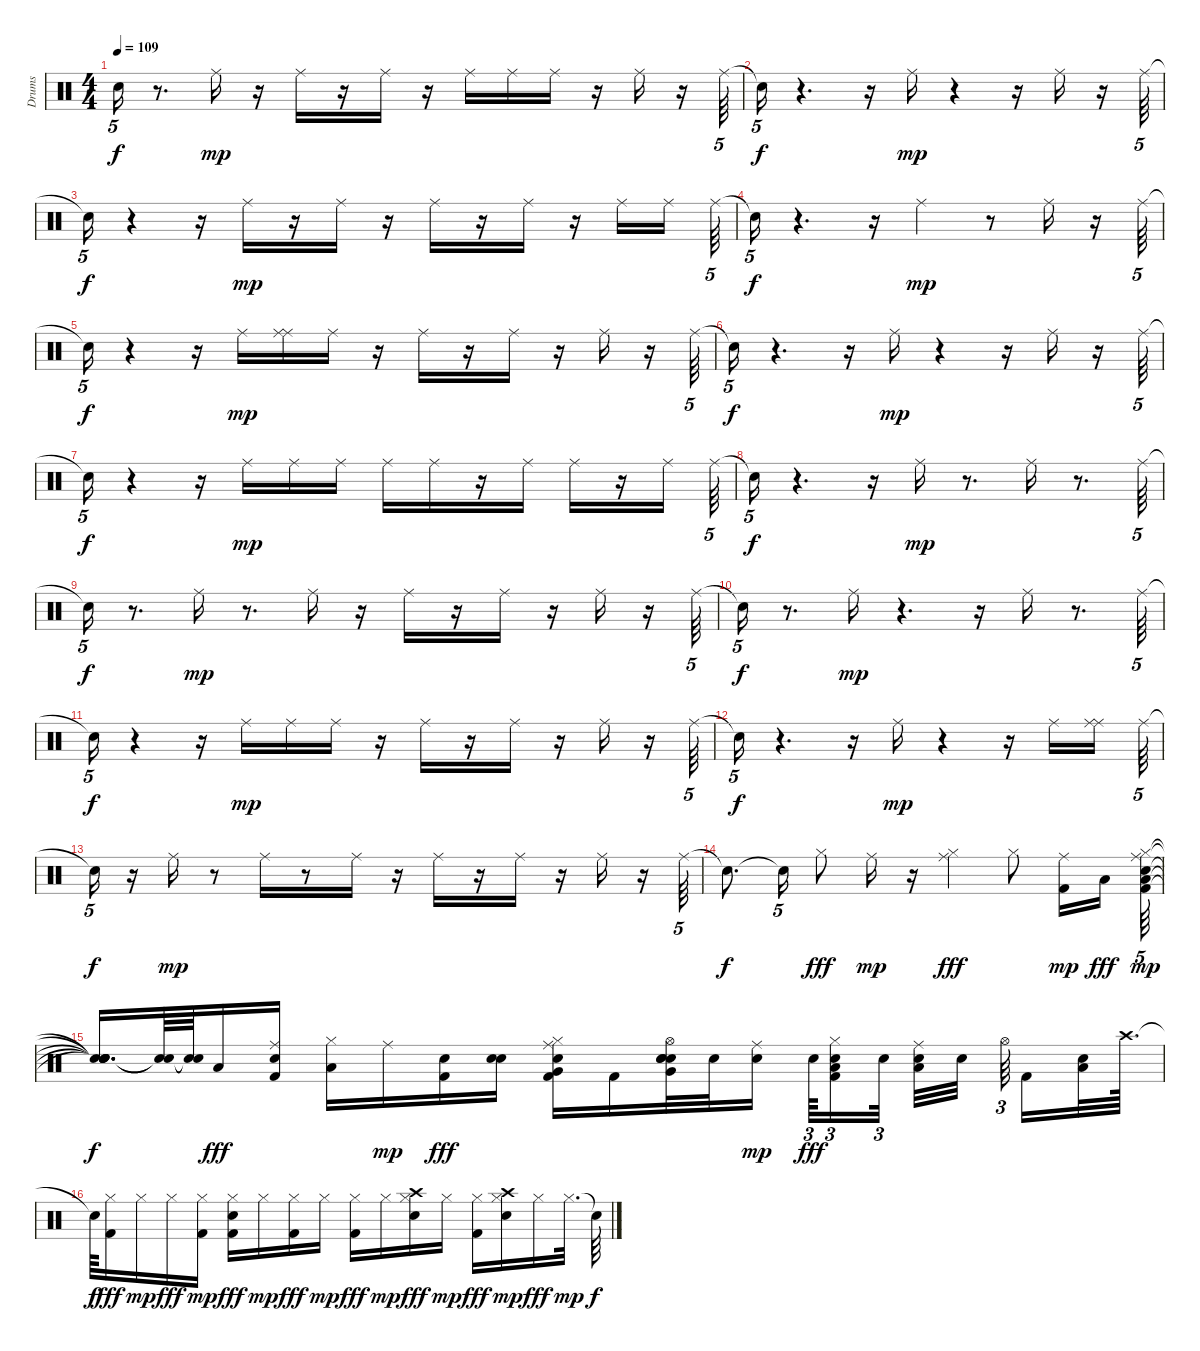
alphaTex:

\track ("Drums" "Drums") {instrument percussion}
\staff {score}
\articulation defaults
\ts (4 4)
\tempo 109
\clef neutral
\ks c "Snare (hit)"{t}.16{tu (5 4) dy f}
r.8{d} "Ride (middle)".16{dy mp} r.16 "Ride (middle)".16 r.16 "Ride (middle)".16 r.16 "Ride (middle)".16 "Ride (middle)".16 "Ride (middle)".16 r.16 "Ride (middle)".16 r.16 "Ride (middle)".64{tu (5 4)} |
"Snare (hit)"{t}.16{tu (5 4) dy f} r.4{d} r.16 "Ride (middle)".16{dy mp} r.4 r.16 "Ride (middle)".16 r.16 "Ride (middle)".64{tu (5 4)} |
"Snare (hit)"{t}.16{tu (5 4) dy f} r.4 r.16 "Ride (middle)".16{dy mp} r.16 "Ride (middle)".16 r.16 "Ride (middle)".16 r.16 "Ride (middle)".16 r.16 "Ride (middle)".16 "Ride (middle)".16{beam splitsecondary} "Ride (middle)".64{tu (5 4)} |
"Snare (hit)"{t}.16{tu (5 4) dy f} r.4{d} r.16 "Ride (middle)".4{dy mp} r.8 "Ride (middle)".16 r.16 "Ride (middle)".64{tu (5 4)} |
"Snare (hit)"{t}.16{tu (5 4) dy f} r.4 r.16 "Ride (middle)".16{dy mp} ("Ride (middle)" "Ride (middle)").16 "Ride (middle)".16 r.16 "Ride (middle)".16 r.16 "Ride (middle)".16 r.16 "Ride (middle)".16 r.16 "Ride (middle)".64{tu (5 4)} |
"Snare (hit)"{t}.16{tu (5 4) dy f} r.4{d} r.16 "Ride (middle)".16{dy mp} r.4 r.16 "Ride (middle)".16 r.16 "Ride (middle)".64{tu (5 4)} |
"Snare (hit)"{t}.16{tu (5 4) dy f} r.4 r.16 "Ride (middle)".16{dy mp} "Ride (middle)".16 "Ride (middle)".16 "Ride (middle)".16 "Ride (middle)".16 r.16 "Ride (middle)".16 "Ride (middle)".16 r.16 "Ride (middle)".16 "Ride (middle)".64{tu (5 4)} |
"Snare (hit)"{t}.16{tu (5 4) dy f} r.4{d} r.16 "Ride (middle)".16{dy mp} r.8{d} "Ride (middle)".16 r.8{d} "Ride (middle)".64{tu (5 4)} |
"Snare (hit)"{t}.16{tu (5 4) dy f} r.8{d} "Ride (middle)".16{dy mp} r.8{d} "Ride (middle)".16 r.16 "Ride (middle)".16 r.16 "Ride (middle)".16 r.16 "Ride (middle)".16 r.16 "Ride (middle)".64{tu (5 4)} |
"Snare (hit)"{t}.16{tu (5 4) dy f} r.8{d} "Ride (middle)".16{dy mp} r.4{d} r.16 "Ride (middle)".16 r.8{d} "Ride (middle)".64{tu (5 4)} |
"Snare (hit)"{t}.16{tu (5 4) dy f} r.4 r.16 "Ride (middle)".16{dy mp} "Ride (middle)".16 "Ride (middle)".16 r.16 "Ride (middle)".16 r.16 "Ride (middle)".16 r.16 "Ride (middle)".16 r.16 "Ride (middle)".64{tu (5 4)} |
"Snare (hit)"{t}.16{tu (5 4) dy f} r.4{d} r.16 "Ride (middle)".16{dy mp} r.4 r.16 "Ride (middle)".16 ("Ride (middle)" "Ride (middle)").16{beam splitsecondary} "Ride (middle)".64{tu (5 4)} |
"Snare (hit)"{t}.16{tu (5 4) dy f} r.16 "Ride (middle)".16{dy mp} r.8 "Ride (middle)".16 r.8 "Ride (middle)".16 r.16 "Ride (middle)".16 r.16 "Ride (middle)".16 r.16 "Ride (middle)".16 r.16 "Ride (middle)".64{tu (5 4)} |
"Snare (hit)"{t}.8{d dy f} "Snare (hit)"{t}.16{tu (5 4)} "Hi-Hat (closed)".8{dy fff} "Ride (middle)".16{dy mp} r.16 ("Ride (middle)" "Hi-Hat (closed)").4{dy fff} "Hi-Hat (closed)".8 ("Kick (hit) 2" "Ride (middle)").16{dy mp} "Low Tom (hit)".16{dy fff beam splitsecondary} ("Hi-Hat (closed)" "Low Tom (hit)" "Kick (hit) 2" "Snare (hit) 2" "Ride (middle)").64{tu (5 4) dy mp} |
("Snare (hit)"{t} "Snare (hit)"{t} "Snare (hit)"{t} "Snare (hit)"{t} "Snare (hit)"{t}).16{d dy f} ("Snare (hit)"{t} "Snare (hit)"{t}).64 ("Snare (hit)"{t} "Snare (hit)"{t}).64 "Low Tom (hit)".16{dy fff} ("Ride (middle)" "Kick (hit) 2" "Snare (hit) 2").16 ("Hi-Hat (closed)" "Low Tom (hit)").16 "Ride (middle)".16{dy mp} ("Kick (hit) 2" "Snare (hit) 2").16{dy fff} ("Snare (hit) 2" "Snare (hit) 2").16 ("Hi-Hat (closed)" "Kick (hit) 2" "Very Low Tom (hit)" "Ride (middle)" "Snare (hit) 2").16 "Kick (hit) 2".16 ("Snare (hit) 2" "Hi-Hat (open)" "Very Low Tom (hit)" "Snare (hit) 2" "Hand Clap (hit)").32 "Snare (hit) 2".32 ("Snare (hit) 2" "Ride (middle)").16{dy mp} "Snare (hit) 2".64{tu (3 2) dy fff} ("Hi-Hat (closed)" "Kick (hit) 2" "Low Floor Tom (hit)" "Snare (hit) 2").16{tu (3 2)} "Snare (hit) 2".32{tu (3 2) beam splitsecondary} ("Low Floor Tom (hit)" "Ride (middle)" "Snare (hit) 2").32 "Snare (hit) 2".32{beam splitsecondary} "Hi-Hat (open)".64{tu (3 2) beam splitsecondary} "Kick (hit) 2".16 ("Snare (hit) 2" "Low Floor Tom (hit)").32 "Crash high (hit)".64{d} |
"Snare (hit)"{t}.64{dy f} ("Hi-Hat (closed)" "Kick (hit) 2").16{dy fff} "Hi-Hat (closed)".16{dy mp} "Hi-Hat (closed)".16{dy fff} ("Kick (hit) 2" "Hi-Hat (closed)").16{dy mp} ("Hi-Hat (closed)" "Snare (hit) 2" "Kick (hit) 2").16{dy fff} "Hi-Hat (closed)".16{dy mp} ("Kick (hit) 2" "Hi-Hat (closed)").16{dy fff} "Hi-Hat (closed)".16{dy mp} ("Kick (hit) 2" "Hi-Hat (closed)").16{dy fff} "Hi-Hat (closed)".16{dy mp} ("Snare (hit) 2" "Crash high (hit)" "Hi-Hat (closed)").16{dy fff} "Hi-Hat (closed)".16{dy mp} ("Kick (hit) 2" "Hi-Hat (closed)").16{dy fff} ("Snare (hit) 2" "Crash high (hit)" "Hi-Hat (closed)").16{dy mp} "Hi-Hat (closed)".16{dy fff} "Hi-Hat (closed)".32{d dy mp} "Snare (hit)"{t}.64{dy f}
